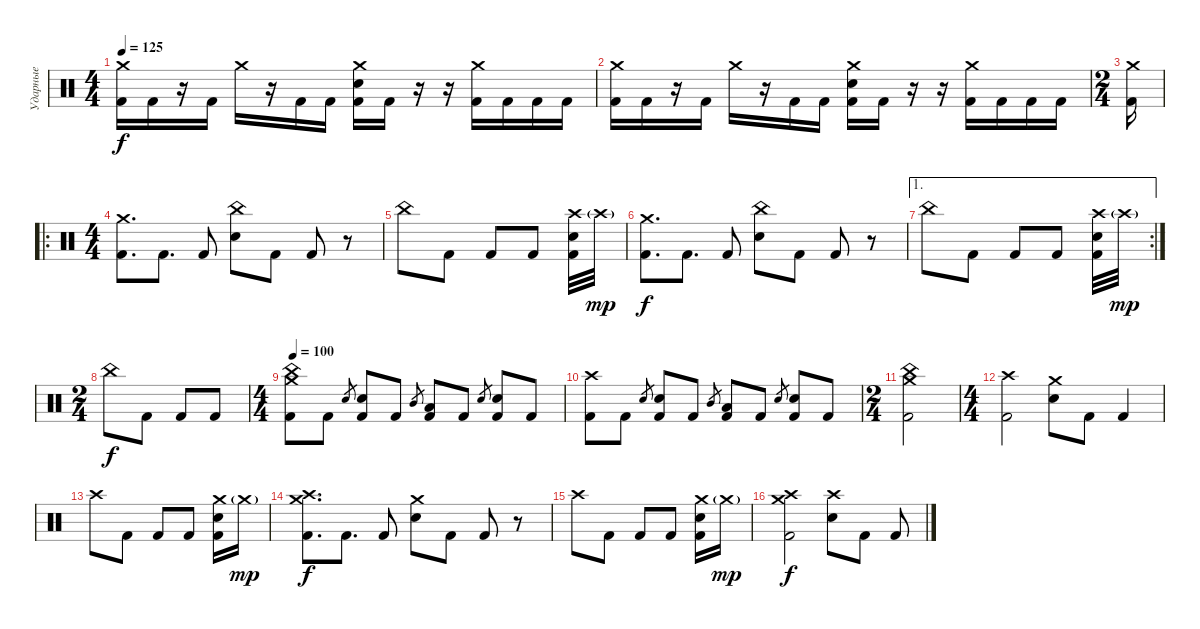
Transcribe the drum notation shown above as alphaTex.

\track ("Ударные" "Ударные") {instrument percussion}
\staff {score}
\articulation defaults
\ts (4 4)
\tempo 125
\clef neutral
\ks c
("Crash medium (hit)" "Kick (hit) 2").16{dy f} "Kick (hit) 2".16 r.16 "Kick (hit) 2".16 "Crash medium (hit)".16 r.16 "Kick (hit) 2".16 "Kick (hit) 2".16 ("Crash medium (hit)" "Electric Snare (hit)" "Kick (hit) 2").16 "Kick (hit) 2".16 r.16 r.16 ("Crash medium (hit)" "Kick (hit) 2").16 "Kick (hit) 2".16 "Kick (hit) 2".16 "Kick (hit) 2".16 |
("Crash medium (hit)" "Kick (hit) 2").16 "Kick (hit) 2".16 r.16 "Kick (hit) 2".16 "Crash medium (hit)".16 r.16 "Kick (hit) 2".16 "Kick (hit) 2".16 ("Crash medium (hit)" "Electric Snare (hit)" "Kick (hit) 2").16 "Kick (hit) 2".16 r.16 r.16 ("Crash medium (hit)" "Kick (hit) 2").16 "Kick (hit) 2".16 "Kick (hit) 2".16 "Kick (hit) 2".16 |
\ts (2 4)
("Crash medium (hit)" "Kick (hit) 2").16 |
\ro
\ts (4 4)
("Crash medium (hit)" "Kick (hit) 2").8{d} "Kick (hit) 2".8{d} "Kick (hit) 2".8 ("China (hit)" "Electric Snare (hit)").8 "Kick (hit) 2".8 "Kick (hit) 2".8 r.8 |
"China (hit)".8 "Kick (hit) 2".8 "Kick (hit) 2".8 "Kick (hit) 2".8 ("Crash high (hit)" "Electric Snare (hit)" "Kick (hit) 2").32 "Crash high (hit)"{g}.32{dy mp} |
("Crash medium (hit)" "Kick (hit) 2").8{d dy f} "Kick (hit) 2".8{d} "Kick (hit) 2".8 ("China (hit)" "Electric Snare (hit)").8 "Kick (hit) 2".8 "Kick (hit) 2".8 r.8 |
\ae 1
\rc 2 "China (hit)".8 "Kick (hit) 2".8 "Kick (hit) 2".8 "Kick (hit) 2".8
("Crash high (hit)" "Electric Snare (hit)" "Kick (hit) 2").32 "Crash high (hit)"{g}.32{dy mp} |
\ts (2 4)
"China (hit)".8{dy f} "Kick (hit) 2".8 "Kick (hit) 2".8 "Kick (hit) 2".8 |
\ts (4 4)
\tempo 100
("Crash medium (hit)" "China (hit)" "Kick (hit) 2").8 "Kick (hit) 2".8 "Electric Snare (hit)".8{gr} ("Electric Snare (hit)" "Kick (hit) 2").8 "Kick (hit) 2".8 "Mid Tom (hit)".8{gr} ("Low Tom (hit)" "Kick (hit) 2").8 "Kick (hit) 2".8 "Electric Snare (hit)".8{gr} ("Electric Snare (hit)" "Kick (hit) 2").8 "Kick (hit) 2".8 |
("Crash high (hit)" "Kick (hit) 2").8 "Kick (hit) 2".8 "Electric Snare (hit)".8{gr} ("Electric Snare (hit)" "Kick (hit) 2").8 "Kick (hit) 2".8 "Mid Tom (hit)".8{gr} ("Low Tom (hit)" "Kick (hit) 2").8 "Kick (hit) 2".8 "Electric Snare (hit)".8{gr} ("Electric Snare (hit)" "Kick (hit) 2").8 "Kick (hit) 2".8 |
\ts (2 4)
("Crash medium (hit)" "China (hit)" "Kick (hit) 2").2 |
\ts (4 4)
("Crash high (hit)" "Kick (hit) 2").2 ("Crash medium (hit)" "Electric Snare (hit)").8 "Kick (hit) 2".8 "Kick (hit) 2".4 |
"Crash high (hit)".8 "Kick (hit) 2".8 "Kick (hit) 2".8 "Kick (hit) 2".8 ("Crash medium (hit)" "Electric Snare (hit)" "Kick (hit) 2").16 "Crash medium (hit)"{g}.16{dy mp} |
("Crash medium (hit)" "Crash high (hit)" "Kick (hit) 2").8{d dy f} "Kick (hit) 2".8{d} "Kick (hit) 2".8 ("Crash medium (hit)" "Electric Snare (hit)").8 "Kick (hit) 2".8 "Kick (hit) 2".8 r.8 |
"Crash high (hit)".8 "Kick (hit) 2".8 "Kick (hit) 2".8 "Kick (hit) 2".8 ("Crash medium (hit)" "Electric Snare (hit)" "Kick (hit) 2").16 "Crash medium (hit)"{g}.16{dy mp} |
("Crash medium (hit)" "Crash high (hit)" "Kick (hit) 2").2{dy f} ("Crash high (hit)" "Electric Snare (hit)").8 "Kick (hit) 2".8 "Kick (hit) 2".8
